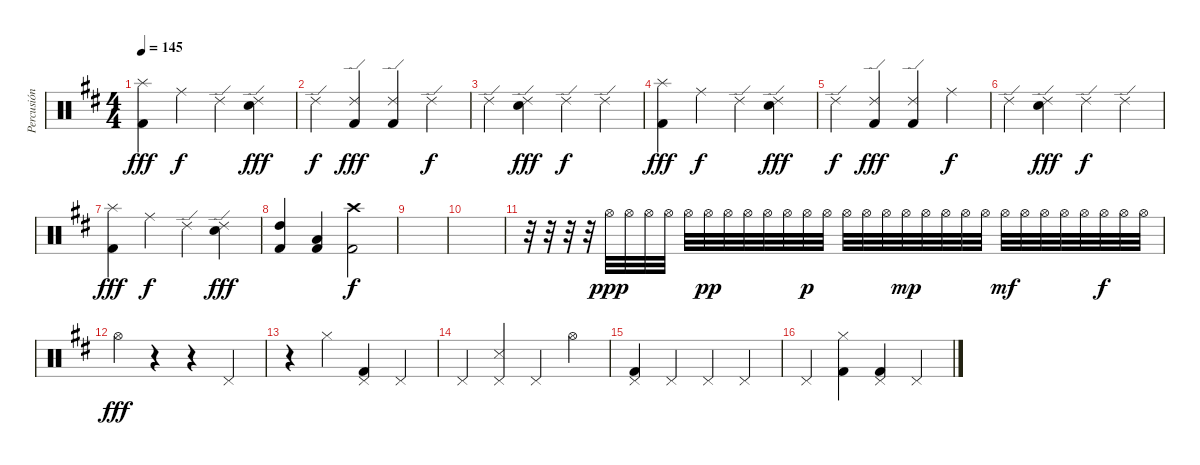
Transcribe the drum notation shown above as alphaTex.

\track ("Percusión" "Percusión") {instrument percussion}
\staff {score}
\articulation defaults
\ts (4 4)
\tempo 145
\clef neutral
\ks d
("Splash (hit)" "Kick (hit) 2").4{dy fff} "Ride (middle)".4{dy f} "Ride (edge) 2".4 ("Ride (edge) 2" "Electric Snare (hit)").4{dy fff} |
"Ride (edge) 2".4{dy f} ("Ride (edge) 2" "Kick (hit) 2").4{dy fff} ("Ride (edge) 2" "Kick (hit) 2").4 "Ride (edge) 2".4{dy f} |
"Ride (edge) 2".4 ("Ride (edge) 2" "Electric Snare (hit)").4{dy fff} "Ride (edge) 2".4{dy f} "Ride (edge) 2".4 |
("Splash (hit)" "Kick (hit) 2").4{dy fff} "Ride (middle)".4{dy f} "Ride (edge) 2".4 ("Ride (edge) 2" "Electric Snare (hit)").4{dy fff} |
"Ride (edge) 2".4{dy f} ("Ride (edge) 2" "Kick (hit) 2").4{dy fff} ("Ride (edge) 2" "Kick (hit) 2").4 "Ride (middle)".4{dy f} |
"Ride (edge) 2".4 ("Ride (edge) 2" "Electric Snare (hit)").4{dy fff} "Ride (edge) 2".4{dy f} "Ride (edge) 2".4 |
("Splash (hit)" "Kick (hit) 2").4{dy fff} "Ride (middle)".4{dy f} "Ride (edge) 2".4 ("Ride (edge) 2" "Electric Snare (hit)").4{dy fff} |
("High Tom (hit)" "Kick (hit) 2").4 ("Low Tom (hit)" "Kick (hit) 2").4 ("Crash high (hit)" "Kick (hit) 2").2{dy f} |
|
|
r.32 r.32 r.32 r.32 "Hi-Hat (open)".32{dy ppp} "Hi-Hat (open)".32 "Hi-Hat (open)".32 "Hi-Hat (open)".32 "Hi-Hat (open)".32 "Hi-Hat (open)".32{dy pp} "Hi-Hat (open)".32 "Hi-Hat (open)".32 "Hi-Hat (open)".32 "Hi-Hat (open)".32 "Hi-Hat (open)".32{dy p} "Hi-Hat (open)".32 "Hi-Hat (open)".32 "Hi-Hat (open)".32 "Hi-Hat (open)".32 "Hi-Hat (open)".32{dy mp} "Hi-Hat (open)".32 "Hi-Hat (open)".32 "Hi-Hat (open)".32 "Hi-Hat (open)".32 "Hi-Hat (open)".32{dy mf} "Hi-Hat (open)".32 "Hi-Hat (open)".32 "Hi-Hat (open)".32 "Hi-Hat (open)".32 "Hi-Hat (open)".32{dy f} "Hi-Hat (open)".32 "Hi-Hat (open)".32 |
"Hi-Hat (open)".4{dy fff} r.4 r.4 "Pedal Hi-Hat (hit)".4 |
r.4 "Hi-Hat (closed)".4 ("Pedal Hi-Hat (hit)" "Kick (hit) 2").4 "Pedal Hi-Hat (hit)".4 |
"Pedal Hi-Hat (hit)".4 ("Pedal Hi-Hat (hit)" "Snare (side stick) 3").4 "Pedal Hi-Hat (hit)".4 "Hi-Hat (open)".4 |
("Pedal Hi-Hat (hit)" "Kick (hit) 2").4 "Pedal Hi-Hat (hit)".4 "Pedal Hi-Hat (hit)".4 "Pedal Hi-Hat (hit)".4 |
"Pedal Hi-Hat (hit)".4 ("Hi-Hat (closed)" "Kick (hit) 2").4 ("Pedal Hi-Hat (hit)" "Kick (hit) 2").4 "Pedal Hi-Hat (hit)".4
